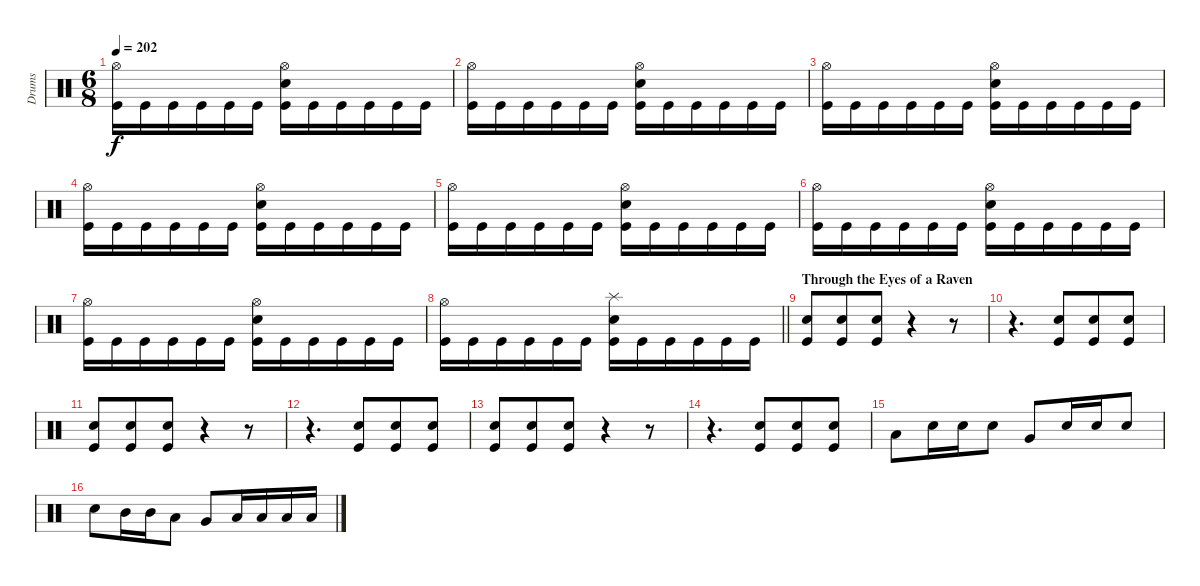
\track ("Drums" "Drums") {instrument percussion}
\staff {score}
\articulation defaults
\ts (6 8)
\tempo 202
\clef neutral
\ks c
("Hi-Hat (open)" "Kick (hit)").16{dy f} "Kick (hit)".16 "Kick (hit)".16 "Kick (hit)".16 "Kick (hit)".16 "Kick (hit)".16 ("Hi-Hat (open)" "Electric Snare (hit)" "Kick (hit)").16 "Kick (hit)".16 "Kick (hit)".16 "Kick (hit)".16 "Kick (hit)".16 "Kick (hit)".16 |
("Hi-Hat (open)" "Kick (hit)").16 "Kick (hit)".16 "Kick (hit)".16 "Kick (hit)".16 "Kick (hit)".16 "Kick (hit)".16 ("Hi-Hat (open)" "Electric Snare (hit)" "Kick (hit)").16 "Kick (hit)".16 "Kick (hit)".16 "Kick (hit)".16 "Kick (hit)".16 "Kick (hit)".16 |
("Hi-Hat (open)" "Kick (hit)").16 "Kick (hit)".16 "Kick (hit)".16 "Kick (hit)".16 "Kick (hit)".16 "Kick (hit)".16 ("Hi-Hat (open)" "Electric Snare (hit)" "Kick (hit)").16 "Kick (hit)".16 "Kick (hit)".16 "Kick (hit)".16 "Kick (hit)".16 "Kick (hit)".16 |
("Hi-Hat (open)" "Kick (hit)").16 "Kick (hit)".16 "Kick (hit)".16 "Kick (hit)".16 "Kick (hit)".16 "Kick (hit)".16 ("Hi-Hat (open)" "Electric Snare (hit)" "Kick (hit)").16 "Kick (hit)".16 "Kick (hit)".16 "Kick (hit)".16 "Kick (hit)".16 "Kick (hit)".16 |
("Hi-Hat (open)" "Kick (hit)").16 "Kick (hit)".16 "Kick (hit)".16 "Kick (hit)".16 "Kick (hit)".16 "Kick (hit)".16 ("Hi-Hat (open)" "Electric Snare (hit)" "Kick (hit)").16 "Kick (hit)".16 "Kick (hit)".16 "Kick (hit)".16 "Kick (hit)".16 "Kick (hit)".16 |
("Hi-Hat (open)" "Kick (hit)").16 "Kick (hit)".16 "Kick (hit)".16 "Kick (hit)".16 "Kick (hit)".16 "Kick (hit)".16 ("Hi-Hat (open)" "Electric Snare (hit)" "Kick (hit)").16 "Kick (hit)".16 "Kick (hit)".16 "Kick (hit)".16 "Kick (hit)".16 "Kick (hit)".16 |
("Hi-Hat (open)" "Kick (hit)").16 "Kick (hit)".16 "Kick (hit)".16 "Kick (hit)".16 "Kick (hit)".16 "Kick (hit)".16 ("Hi-Hat (open)" "Electric Snare (hit)" "Kick (hit)").16 "Kick (hit)".16 "Kick (hit)".16 "Kick (hit)".16 "Kick (hit)".16 "Kick (hit)".16 |
\barLineRight lightlight
("Hi-Hat (open)" "Kick (hit)").16 "Kick (hit)".16 "Kick (hit)".16 "Kick (hit)".16 "Kick (hit)".16 "Kick (hit)".16 ("Splash (hit)" "Electric Snare (hit)" "Kick (hit)").16 "Kick (hit)".16 "Kick (hit)".16 "Kick (hit)".16 "Kick (hit)".16 "Kick (hit)".16 |
\section ("" "Through the Eyes of a Raven")
("Electric Snare (hit)" "Kick (hit)").8 ("Electric Snare (hit)" "Kick (hit)").8 ("Electric Snare (hit)" "Kick (hit)").8 r.4 r.8 |
r.4{d} ("Electric Snare (hit)" "Kick (hit)").8 ("Electric Snare (hit)" "Kick (hit)").8 ("Electric Snare (hit)" "Kick (hit)").8 |
("Electric Snare (hit)" "Kick (hit)").8 ("Electric Snare (hit)" "Kick (hit)").8 ("Electric Snare (hit)" "Kick (hit)").8 r.4 r.8 |
r.4{d} ("Electric Snare (hit)" "Kick (hit)").8 ("Electric Snare (hit)" "Kick (hit)").8 ("Electric Snare (hit)" "Kick (hit)").8 |
("Electric Snare (hit)" "Kick (hit)").8 ("Electric Snare (hit)" "Kick (hit)").8 ("Electric Snare (hit)" "Kick (hit)").8 r.4 r.8 |
r.4{d} ("Electric Snare (hit)" "Kick (hit)").8 ("Electric Snare (hit)" "Kick (hit)").8 ("Electric Snare (hit)" "Kick (hit)").8 |
"Low Floor Tom (hit)".8 "Electric Snare (hit)".16 "Electric Snare (hit)".16 "Electric Snare (hit)".8 "Very Low Tom (hit)".8 "Electric Snare (hit)".16 "Electric Snare (hit)".16 "Electric Snare (hit)".8 |
"Electric Snare (hit)".8 "Mid Tom (hit)".16 "Mid Tom (hit)".16 "Low Tom (hit)".8 "Very Low Tom (hit)".8 "Low Floor Tom (hit)".16 "Low Floor Tom (hit)".16 "Low Floor Tom (hit)".16 "Low Floor Tom (hit)".16
